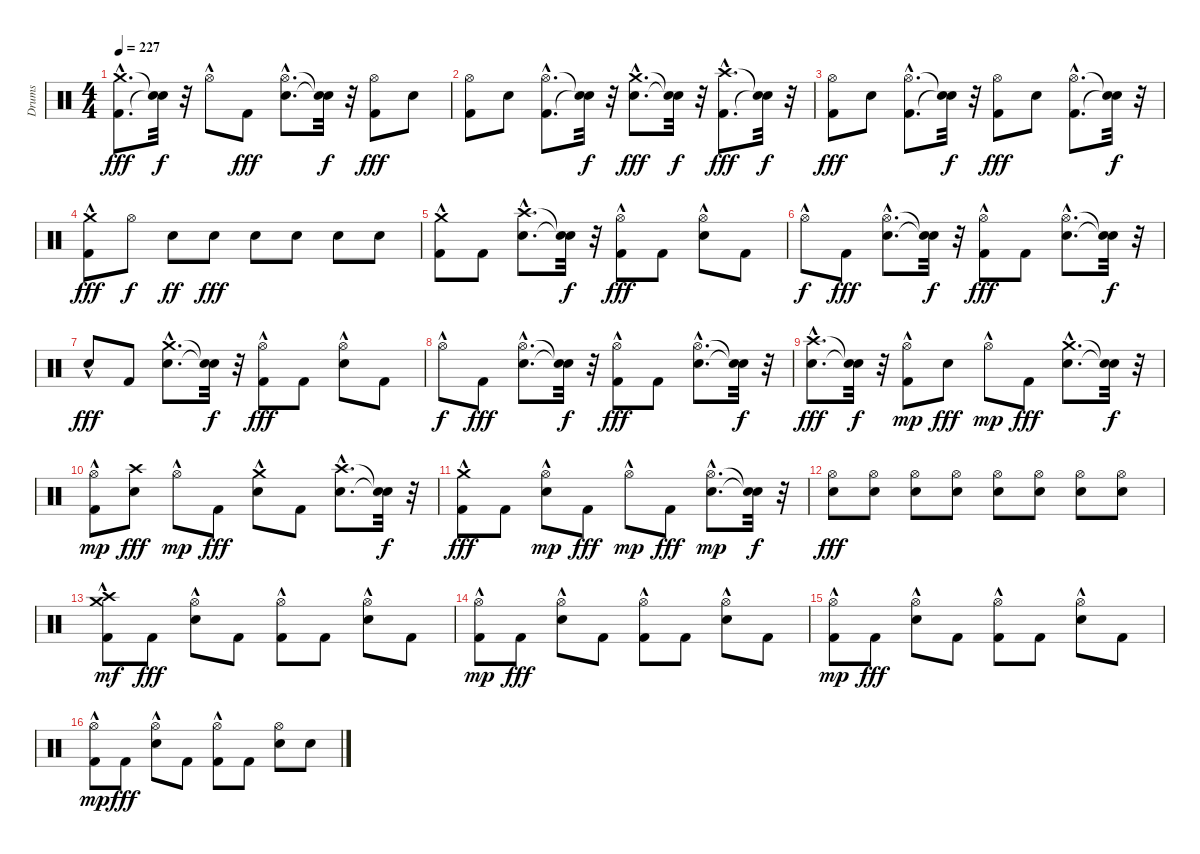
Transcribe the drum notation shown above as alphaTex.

\track ("Drums" "Drums") {instrument percussion}
\staff {score}
\articulation defaults
\ts (4 4)
\tempo 227
\clef neutral
\ks c
("Kick (hit) 2"{hac} "Crash medium (hit)"{hac}).8{d dy fff} ("Snare (hit)"{t} "Snare (hit)"{t}).32{dy f} r.32 "Hi-Hat (open)"{hac}.8 "Kick (hit) 2".8{dy fff} ("Snare (hit) 2"{hac} "Hi-Hat (open)"{hac}).8{d} ("Snare (hit)"{t} "Snare (hit)"{t}).32{dy f} r.32 ("Kick (hit) 2" "Hi-Hat (open)").8{dy fff} "Snare (hit) 2".8 |
("Kick (hit) 2" "Hi-Hat (open)").8 "Snare (hit) 2".8 ("Kick (hit) 2"{hac} "Hi-Hat (open)"{hac}).8{d} ("Snare (hit)"{t} "Snare (hit)"{t}).32{dy f} r.32 ("Snare (hit) 2"{hac} "Crash medium (hit)"{hac}).8{d dy fff} ("Snare (hit)"{t} "Snare (hit)"{t}).32{dy f} r.32 ("Kick (hit) 2"{hac} "Crash high (hit)"{hac}).8{d dy fff} ("Snare (hit)"{t} "Snare (hit)"{t}).32{dy f} r.32 |
("Kick (hit) 2" "Hi-Hat (open)").8{dy fff} "Snare (hit) 2".8 ("Kick (hit) 2"{hac} "Hi-Hat (open)"{hac}).8{d} ("Snare (hit)"{t} "Snare (hit)"{t}).32{dy f} r.32 ("Kick (hit) 2" "Hi-Hat (open)").8{dy fff} "Snare (hit) 2".8 ("Kick (hit) 2"{hac} "Hi-Hat (open)"{hac}).8{d} ("Snare (hit)"{t} "Snare (hit)"{t}).32{dy f} r.32 |
("Crash medium (hit)"{hac} "Kick (hit) 2"{hac}).8{dy fff} "Hi-Hat (open)".8{dy f} "Snare (hit) 2".8{dy ff} "Snare (hit) 2".8{dy fff} "Snare (hit) 2".8 "Snare (hit) 2".8 "Snare (hit) 2".8 "Snare (hit) 2".8 |
("Kick (hit) 2" "Crash medium (hit)"{hac}).8 "Kick (hit) 2".8 ("Snare (hit) 2"{hac} "Crash high (hit)"{hac}).8{d} ("Snare (hit)"{t} "Snare (hit)"{t}).32{dy f} r.32 ("Kick (hit) 2" "Hi-Hat (open)"{hac}).8{dy fff} "Kick (hit) 2".8 ("Snare (hit) 2"{hac} "Hi-Hat (open)"{hac}).8 "Kick (hit) 2".8 |
"Hi-Hat (open)"{hac}.8{dy f} "Kick (hit) 2".8{dy fff} ("Snare (hit) 2"{hac} "Hi-Hat (open)"{hac}).8{d} ("Snare (hit)"{t} "Snare (hit)"{t}).32{dy f} r.32 ("Kick (hit) 2" "Hi-Hat (open)"{hac}).8{dy fff} "Kick (hit) 2".8 ("Snare (hit) 2"{hac} "Hi-Hat (open)"{hac}).8{d} ("Snare (hit)"{t} "Snare (hit)"{t}).32{dy f} r.32 |
"Snare (hit) 2"{hac}.8{dy fff} "Kick (hit) 2".8 ("Snare (hit) 2"{hac} "Crash medium (hit)"{hac}).8{d} ("Snare (hit)"{t} "Snare (hit)"{t}).32{dy f} r.32 ("Kick (hit) 2" "Hi-Hat (open)"{hac}).8{dy fff} "Kick (hit) 2".8 ("Snare (hit) 2"{hac} "Hi-Hat (open)"{hac}).8 "Kick (hit) 2".8 |
"Hi-Hat (open)"{hac}.8{dy f} "Kick (hit) 2".8{dy fff} ("Snare (hit) 2"{hac} "Hi-Hat (open)"{hac}).8{d} ("Snare (hit)"{t} "Snare (hit)"{t}).32{dy f} r.32 ("Kick (hit) 2" "Hi-Hat (open)"{hac}).8{dy fff} "Kick (hit) 2".8 ("Snare (hit) 2"{hac} "Hi-Hat (open)"{hac}).8{d} ("Snare (hit)"{t} "Snare (hit)"{t}).32{dy f} r.32 |
("Snare (hit) 2"{hac} "Crash high (hit)"{hac}).8{d dy fff} ("Snare (hit)"{t} "Snare (hit)"{t}).32{dy f} r.32 ("Kick (hit) 2"{hac} "Hi-Hat (open)").8{dy mp} "Snare (hit) 2".8{dy fff} "Hi-Hat (open)"{hac}.8{dy mp} "Kick (hit) 2".8{dy fff} ("Snare (hit) 2"{hac} "Crash medium (hit)"{hac}).8{d} ("Snare (hit)"{t} "Snare (hit)"{t}).32{dy f} r.32 |
("Kick (hit) 2"{hac} "Hi-Hat (open)").8{dy mp} ("Snare (hit) 2" "Crash high (hit)").8{dy fff} "Hi-Hat (open)"{hac}.8{dy mp} "Kick (hit) 2".8{dy fff} ("Snare (hit) 2"{hac} "Crash medium (hit)"{hac}).8 "Kick (hit) 2".8 ("Snare (hit) 2"{hac} "Crash high (hit)"{hac}).8{d} ("Snare (hit)"{t} "Snare (hit)"{t}).32{dy f} r.32 |
("Crash medium (hit)"{hac} "Kick (hit) 2").8{dy fff} "Kick (hit) 2".8 ("Snare (hit) 2"{hac} "Hi-Hat (open)"{hac}).8{dy mp} "Kick (hit) 2".8{dy fff} "Hi-Hat (open)"{hac}.8{dy mp} "Kick (hit) 2".8{dy fff} ("Snare (hit) 2"{hac} "Hi-Hat (open)"{hac}).8{d dy mp} ("Snare (hit)"{t} "Snare (hit)"{t}).32{dy f} r.32 |
("Snare (hit) 2" "Hi-Hat (open)").8{dy fff} ("Snare (hit) 2" "Hi-Hat (open)").8 ("Snare (hit) 2" "Hi-Hat (open)").8 ("Snare (hit) 2" "Hi-Hat (open)").8 ("Snare (hit) 2" "Hi-Hat (open)").8 ("Snare (hit) 2" "Hi-Hat (open)").8 ("Snare (hit) 2" "Hi-Hat (open)").8 ("Snare (hit) 2" "Hi-Hat (open)").8 |
("Kick (hit) 2" "Crash high (hit)"{hac} "Crash medium (hit)"{hac}).8{dy mf} "Kick (hit) 2".8{dy fff} ("Hi-Hat (open)"{hac} "Snare (hit) 2"{hac}).8 "Kick (hit) 2".8 ("Hi-Hat (open)"{hac} "Kick (hit) 2").8 "Kick (hit) 2".8 ("Hi-Hat (open)"{hac} "Snare (hit) 2"{hac}).8 "Kick (hit) 2".8 |
("Kick (hit) 2" "Hi-Hat (open)"{hac}).8{dy mp} "Kick (hit) 2".8{dy fff} ("Hi-Hat (open)"{hac} "Snare (hit) 2"{hac}).8 "Kick (hit) 2".8 ("Hi-Hat (open)"{hac} "Kick (hit) 2").8 "Kick (hit) 2".8 ("Hi-Hat (open)"{hac} "Snare (hit) 2"{hac}).8 "Kick (hit) 2".8 |
("Kick (hit) 2" "Hi-Hat (open)"{hac}).8{dy mp} "Kick (hit) 2".8{dy fff} ("Hi-Hat (open)"{hac} "Snare (hit) 2"{hac}).8 "Kick (hit) 2".8 ("Hi-Hat (open)"{hac} "Kick (hit) 2").8 "Kick (hit) 2".8 ("Hi-Hat (open)"{hac} "Snare (hit) 2"{hac}).8 "Kick (hit) 2".8 |
("Kick (hit) 2" "Hi-Hat (open)"{hac}).8{dy mp} "Kick (hit) 2".8{dy fff} ("Hi-Hat (open)"{hac} "Snare (hit) 2"{hac}).8 "Kick (hit) 2".8 ("Hi-Hat (open)"{hac} "Kick (hit) 2").8 "Kick (hit) 2".8 ("Hi-Hat (open)" "Snare (hit) 2").8 "Snare (hit) 2".8
